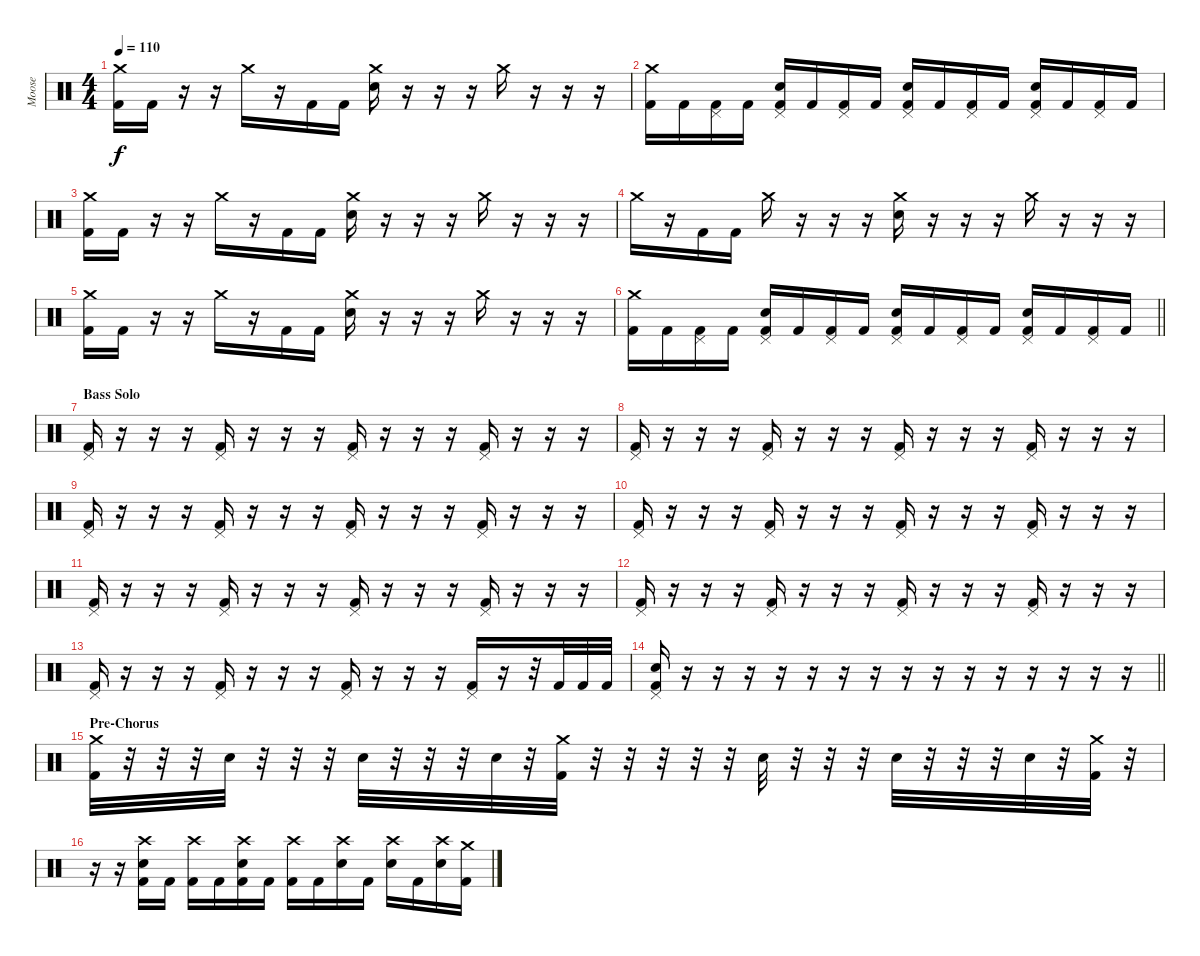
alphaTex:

\track ("Moose" "Moose") {instrument percussion}
\staff {score}
\articulation defaults
\ts (4 4)
\tempo 110
\clef neutral
\ks c
("Crash medium (hit)" "Kick (hit) 2").16{dy f} "Kick (hit) 2".16 r.16 r.16 "Crash medium (hit)".16 r.16 "Kick (hit) 2".16 "Kick (hit) 2".16 ("Crash medium (hit)" "Electric Snare (hit)").16 r.16 r.16 r.16 "Crash medium (hit)".16 r.16 r.16 r.16 |
("Crash medium (hit)" "Kick (hit) 2").16 "Kick (hit) 2".16 ("Pedal Hi-Hat (hit)" "Kick (hit) 2").16 "Kick (hit) 2".16 ("Pedal Hi-Hat (hit)" "Electric Snare (hit)" "Kick (hit) 2").16 "Kick (hit) 2".16 ("Pedal Hi-Hat (hit)" "Kick (hit) 2").16 "Kick (hit) 2".16 ("Pedal Hi-Hat (hit)" "Electric Snare (hit)" "Kick (hit) 2").16 "Kick (hit) 2".16 ("Pedal Hi-Hat (hit)" "Kick (hit) 2").16 "Kick (hit) 2".16 ("Pedal Hi-Hat (hit)" "Electric Snare (hit)" "Kick (hit) 2").16 "Kick (hit) 2".16 ("Pedal Hi-Hat (hit)" "Kick (hit) 2").16 "Kick (hit) 2".16 |
("Crash medium (hit)" "Kick (hit) 2").16 "Kick (hit) 2".16 r.16 r.16 "Crash medium (hit)".16 r.16 "Kick (hit) 2".16 "Kick (hit) 2".16 ("Crash medium (hit)" "Electric Snare (hit)").16 r.16 r.16 r.16 "Crash medium (hit)".16 r.16 r.16 r.16 |
"Crash medium (hit)".16 r.16 "Kick (hit) 2".16 "Kick (hit) 2".16 "Crash medium (hit)".16 r.16 r.16 r.16 ("Crash medium (hit)" "Electric Snare (hit)").16 r.16 r.16 r.16 "Crash medium (hit)".16 r.16 r.16 r.16 |
("Crash medium (hit)" "Kick (hit) 2").16 "Kick (hit) 2".16 r.16 r.16 "Crash medium (hit)".16 r.16 "Kick (hit) 2".16 "Kick (hit) 2".16 ("Crash medium (hit)" "Electric Snare (hit)").16 r.16 r.16 r.16 "Crash medium (hit)".16 r.16 r.16 r.16 |
\barLineRight lightlight
("Crash medium (hit)" "Kick (hit) 2").16 "Kick (hit) 2".16 ("Pedal Hi-Hat (hit)" "Kick (hit) 2").16 "Kick (hit) 2".16 ("Pedal Hi-Hat (hit)" "Electric Snare (hit)" "Kick (hit) 2").16 "Kick (hit) 2".16 ("Pedal Hi-Hat (hit)" "Kick (hit) 2").16 "Kick (hit) 2".16 ("Pedal Hi-Hat (hit)" "Electric Snare (hit)" "Kick (hit) 2").16 "Kick (hit) 2".16 ("Pedal Hi-Hat (hit)" "Kick (hit) 2").16 "Kick (hit) 2".16 ("Pedal Hi-Hat (hit)" "Electric Snare (hit)" "Kick (hit) 2").16 "Kick (hit) 2".16 ("Pedal Hi-Hat (hit)" "Kick (hit) 2").16 "Kick (hit) 2".16 |
\section ("" "Bass Solo")
("Pedal Hi-Hat (hit)" "Kick (hit) 2").16 r.16 r.16 r.16 ("Pedal Hi-Hat (hit)" "Kick (hit) 2").16 r.16 r.16 r.16 ("Pedal Hi-Hat (hit)" "Kick (hit) 2").16 r.16 r.16 r.16 ("Pedal Hi-Hat (hit)" "Kick (hit) 2").16 r.16 r.16 r.16 |
("Pedal Hi-Hat (hit)" "Kick (hit) 2").16 r.16 r.16 r.16 ("Pedal Hi-Hat (hit)" "Kick (hit) 2").16 r.16 r.16 r.16 ("Pedal Hi-Hat (hit)" "Kick (hit) 2").16 r.16 r.16 r.16 ("Pedal Hi-Hat (hit)" "Kick (hit) 2").16 r.16 r.16 r.16 |
("Pedal Hi-Hat (hit)" "Kick (hit) 2").16 r.16 r.16 r.16 ("Pedal Hi-Hat (hit)" "Kick (hit) 2").16 r.16 r.16 r.16 ("Pedal Hi-Hat (hit)" "Kick (hit) 2").16 r.16 r.16 r.16 ("Pedal Hi-Hat (hit)" "Kick (hit) 2").16 r.16 r.16 r.16 |
("Pedal Hi-Hat (hit)" "Kick (hit) 2").16 r.16 r.16 r.16 ("Pedal Hi-Hat (hit)" "Kick (hit) 2").16 r.16 r.16 r.16 ("Pedal Hi-Hat (hit)" "Kick (hit) 2").16 r.16 r.16 r.16 ("Pedal Hi-Hat (hit)" "Kick (hit) 2").16 r.16 r.16 r.16 |
("Pedal Hi-Hat (hit)" "Kick (hit) 2").16 r.16 r.16 r.16 ("Pedal Hi-Hat (hit)" "Kick (hit) 2").16 r.16 r.16 r.16 ("Pedal Hi-Hat (hit)" "Kick (hit) 2").16 r.16 r.16 r.16 ("Pedal Hi-Hat (hit)" "Kick (hit) 2").16 r.16 r.16 r.16 |
("Pedal Hi-Hat (hit)" "Kick (hit) 2").16 r.16 r.16 r.16 ("Pedal Hi-Hat (hit)" "Kick (hit) 2").16 r.16 r.16 r.16 ("Pedal Hi-Hat (hit)" "Kick (hit) 2").16 r.16 r.16 r.16 ("Pedal Hi-Hat (hit)" "Kick (hit) 2").16 r.16 r.16 r.16 |
("Pedal Hi-Hat (hit)" "Kick (hit) 2").16 r.16 r.16 r.16 ("Pedal Hi-Hat (hit)" "Kick (hit) 2").16 r.16 r.16 r.16 ("Pedal Hi-Hat (hit)" "Kick (hit) 2").16 r.16 r.16 r.16 ("Pedal Hi-Hat (hit)" "Kick (hit) 2").16 r.16 r.32 "Kick (hit) 2".32 "Kick (hit) 2".32 "Kick (hit) 2".32 |
\barLineRight lightlight
("Pedal Hi-Hat (hit)" "Electric Snare (hit)" "Kick (hit) 2").16 r.16 r.16 r.16 r.16 r.16 r.16 r.16 r.16 r.16 r.16 r.16 r.16 r.16 r.16 r.16 |
\section ("" "Pre-Chorus")
("Crash medium (hit)" "Kick (hit) 2").32 r.32 r.32 r.32 "Electric Snare (hit)".32 r.32 r.32 r.32 "Electric Snare (hit)".32 r.32 r.32 r.32 "Electric Snare (hit)".32 r.32 ("Crash medium (hit)" "Kick (hit) 2").32 r.32 r.32 r.32 r.32 r.32 "Electric Snare (hit)".32 r.32 r.32 r.32 "Electric Snare (hit)".32 r.32 r.32 r.32 "Electric Snare (hit)".32 r.32 ("Crash medium (hit)" "Kick (hit) 2").32 r.32 |
r.16 r.16 ("Crash high (hit)" "Electric Snare (hit)" "Kick (hit) 2").16 "Kick (hit) 2".16 ("Crash high (hit)" "Kick (hit) 2").16 "Kick (hit) 2".16 ("Crash high (hit)" "Electric Snare (hit)" "Kick (hit) 2").16 "Kick (hit) 2".16 ("Crash high (hit)" "Kick (hit) 2").16 "Kick (hit) 2".16 ("Crash high (hit)" "Electric Snare (hit)").16 "Kick (hit) 2".16 ("Crash high (hit)" "Electric Snare (hit)").16 "Kick (hit) 2".16 ("Crash high (hit)" "Electric Snare (hit)").16 ("Crash medium (hit)" "Kick (hit) 2").16
